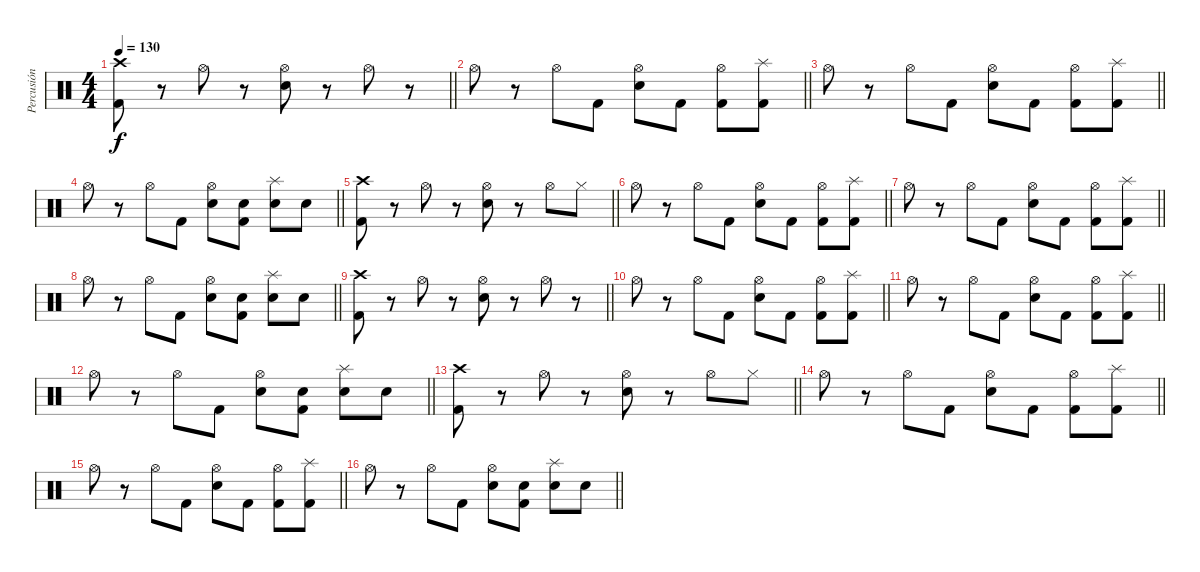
\track ("Percusión" "Percusión") {mute instrument percussion}
\staff {score}
\articulation defaults
\ts (4 4)
\tempo 130
\clef neutral
\barLineRight lightlight
\ks c
("Kick (hit) 2" "Crash high (hit)").8{dy f} r.8 "Hi-Hat (open)".8 r.8 ("Electric Snare (hit)" "Hi-Hat (open)").8 r.8 "Hi-Hat (open)".8 r.8 |
\barLineRight lightlight "Hi-Hat (open)".8
r.8 "Hi-Hat (open)".8 "Kick (hit) 2".8 ("Electric Snare (hit)" "Hi-Hat (open)").8 "Kick (hit) 2".8 ("Hi-Hat (open)" "Kick (hit) 2").8 ("Splash (hit)" "Kick (hit) 2").8 |
\barLineRight lightlight "Hi-Hat (open)".8
r.8 "Hi-Hat (open)".8 "Kick (hit) 2".8 ("Electric Snare (hit)" "Hi-Hat (open)").8 "Kick (hit) 2".8 ("Hi-Hat (open)" "Kick (hit) 2").8 ("Splash (hit)" "Kick (hit) 2").8 |
\barLineRight lightlight "Hi-Hat (open)".8
r.8 "Hi-Hat (open)".8 "Kick (hit) 2".8 ("Electric Snare (hit)" "Hi-Hat (open)").8 ("Kick (hit) 2" "Electric Snare (hit)").8 ("Splash (hit)" "Electric Snare (hit)").8 "Electric Snare (hit)".8 |
\barLineRight lightlight
("Kick (hit) 2" "Crash high (hit)").8 r.8 "Hi-Hat (open)".8 r.8 ("Electric Snare (hit)" "Hi-Hat (open)").8 r.8 "Hi-Hat (open)".8 "Hi-Hat (closed)".8 |
\barLineRight lightlight "Hi-Hat (open)".8
r.8 "Hi-Hat (open)".8 "Kick (hit) 2".8 ("Electric Snare (hit)" "Hi-Hat (open)").8 "Kick (hit) 2".8 ("Hi-Hat (open)" "Kick (hit) 2").8 ("Splash (hit)" "Kick (hit) 2").8 |
\barLineRight lightlight "Hi-Hat (open)".8
r.8 "Hi-Hat (open)".8 "Kick (hit) 2".8 ("Electric Snare (hit)" "Hi-Hat (open)").8 "Kick (hit) 2".8 ("Hi-Hat (open)" "Kick (hit) 2").8 ("Splash (hit)" "Kick (hit) 2").8 |
\barLineRight lightlight "Hi-Hat (open)".8
r.8 "Hi-Hat (open)".8 "Kick (hit) 2".8 ("Electric Snare (hit)" "Hi-Hat (open)").8 ("Kick (hit) 2" "Electric Snare (hit)").8 ("Splash (hit)" "Electric Snare (hit)").8 "Electric Snare (hit)".8 |
\barLineRight lightlight
("Kick (hit) 2" "Crash high (hit)").8 r.8 "Hi-Hat (open)".8 r.8 ("Electric Snare (hit)" "Hi-Hat (open)").8 r.8 "Hi-Hat (open)".8 r.8 |
\barLineRight lightlight "Hi-Hat (open)".8
r.8 "Hi-Hat (open)".8 "Kick (hit) 2".8 ("Electric Snare (hit)" "Hi-Hat (open)").8 "Kick (hit) 2".8 ("Hi-Hat (open)" "Kick (hit) 2").8 ("Splash (hit)" "Kick (hit) 2").8 |
\barLineRight lightlight "Hi-Hat (open)".8
r.8 "Hi-Hat (open)".8 "Kick (hit) 2".8 ("Electric Snare (hit)" "Hi-Hat (open)").8 "Kick (hit) 2".8 ("Hi-Hat (open)" "Kick (hit) 2").8 ("Splash (hit)" "Kick (hit) 2").8 |
\barLineRight lightlight "Hi-Hat (open)".8
r.8 "Hi-Hat (open)".8 "Kick (hit) 2".8 ("Electric Snare (hit)" "Hi-Hat (open)").8 ("Kick (hit) 2" "Electric Snare (hit)").8 ("Splash (hit)" "Electric Snare (hit)").8 "Electric Snare (hit)".8 |
\barLineRight lightlight
("Kick (hit) 2" "Crash high (hit)").8 r.8 "Hi-Hat (open)".8 r.8 ("Electric Snare (hit)" "Hi-Hat (open)").8 r.8 "Hi-Hat (open)".8 "Hi-Hat (closed)".8 |
\barLineRight lightlight "Hi-Hat (open)".8
r.8 "Hi-Hat (open)".8 "Kick (hit) 2".8 ("Electric Snare (hit)" "Hi-Hat (open)").8 "Kick (hit) 2".8 ("Hi-Hat (open)" "Kick (hit) 2").8 ("Splash (hit)" "Kick (hit) 2").8 |
\barLineRight lightlight "Hi-Hat (open)".8
r.8 "Hi-Hat (open)".8 "Kick (hit) 2".8 ("Electric Snare (hit)" "Hi-Hat (open)").8 "Kick (hit) 2".8 ("Hi-Hat (open)" "Kick (hit) 2").8 ("Splash (hit)" "Kick (hit) 2").8 |
\barLineRight lightlight "Hi-Hat (open)".8
r.8 "Hi-Hat (open)".8 "Kick (hit) 2".8 ("Electric Snare (hit)" "Hi-Hat (open)").8 ("Kick (hit) 2" "Electric Snare (hit)").8 ("Splash (hit)" "Electric Snare (hit)").8 "Electric Snare (hit)".8
